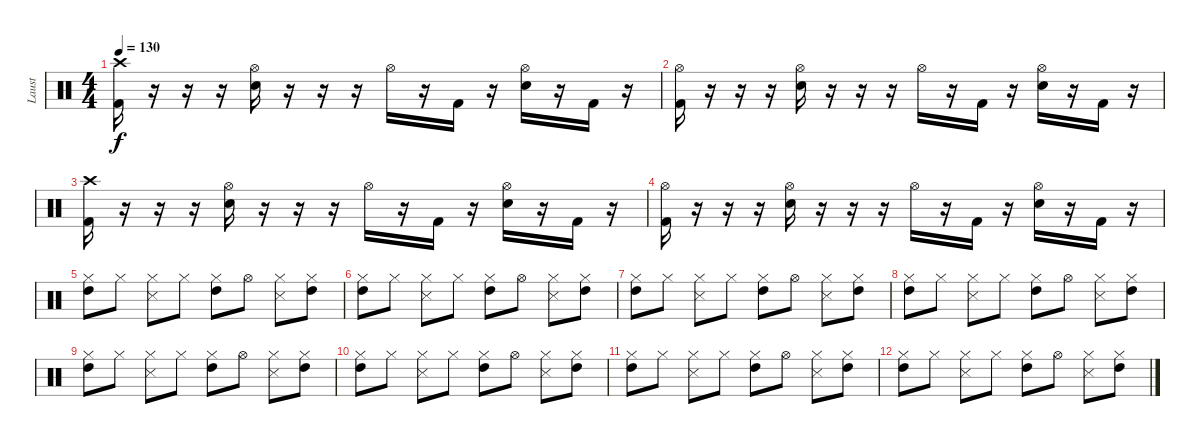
\track ("Laust" "Laust") {instrument percussion}
\staff {score}
\articulation defaults
\ts (4 4)
\tempo 130
\clef neutral
\ks c
("Crash high (hit)" "Kick (hit) 2").16{dy f} r.16 r.16 r.16 ("Hi-Hat (open)" "Snare (hit) 2").16 r.16 r.16 r.16 "Hi-Hat (open)".16 r.16 "Kick (hit) 2".16 r.16 ("Hi-Hat (open)" "Snare (hit) 2").16 r.16 "Kick (hit) 2".16 r.16 |
("Hi-Hat (open)" "Kick (hit) 2").16 r.16 r.16 r.16 ("Hi-Hat (open)" "Snare (hit) 2").16 r.16 r.16 r.16 "Hi-Hat (open)".16 r.16 "Kick (hit) 2".16 r.16 ("Hi-Hat (open)" "Snare (hit) 2").16 r.16 "Kick (hit) 2".16 r.16 |
("Crash high (hit)" "Kick (hit) 2").16 r.16 r.16 r.16 ("Hi-Hat (open)" "Snare (hit) 2").16 r.16 r.16 r.16 "Hi-Hat (open)".16 r.16 "Kick (hit) 2".16 r.16 ("Hi-Hat (open)" "Snare (hit) 2").16 r.16 "Kick (hit) 2".16 r.16 |
("Hi-Hat (open)" "Kick (hit) 2").16 r.16 r.16 r.16 ("Hi-Hat (open)" "Snare (hit) 2").16 r.16 r.16 r.16 "Hi-Hat (open)".16 r.16 "Kick (hit) 2".16 r.16 ("Hi-Hat (open)" "Snare (hit) 2").16 r.16 "Kick (hit) 2".16 r.16 |
("Hi-Hat (closed)" "High Tom (hit)").8 "Hi-Hat (closed)".8 ("Hi-Hat (closed)" "Snare (side stick) 3").8 "Hi-Hat (closed)".8 ("Hi-Hat (closed)" "High Tom (hit)").8 "Hi-Hat (open)".8 ("Hi-Hat (closed)" "Snare (side stick) 3").8 ("Hi-Hat (closed)" "High Tom (hit)").8 |
("Hi-Hat (closed)" "High Tom (hit)").8 "Hi-Hat (closed)".8 ("Hi-Hat (closed)" "Snare (side stick) 3").8 "Hi-Hat (closed)".8 ("Hi-Hat (closed)" "High Tom (hit)").8 "Hi-Hat (open)".8 ("Hi-Hat (closed)" "Snare (side stick) 3").8 ("Hi-Hat (closed)" "High Tom (hit)").8 |
("Hi-Hat (closed)" "High Tom (hit)").8 "Hi-Hat (closed)".8 ("Hi-Hat (closed)" "Snare (side stick) 3").8 "Hi-Hat (closed)".8 ("Hi-Hat (closed)" "High Tom (hit)").8 "Hi-Hat (open)".8 ("Hi-Hat (closed)" "Snare (side stick) 3").8 ("Hi-Hat (closed)" "High Tom (hit)").8 |
("Hi-Hat (closed)" "High Tom (hit)").8 "Hi-Hat (closed)".8 ("Hi-Hat (closed)" "Snare (side stick) 3").8 "Hi-Hat (closed)".8 ("Hi-Hat (closed)" "High Tom (hit)").8 "Hi-Hat (open)".8 ("Hi-Hat (closed)" "Snare (side stick) 3").8 ("Hi-Hat (closed)" "High Tom (hit)").8 |
("Hi-Hat (closed)" "High Tom (hit)").8 "Hi-Hat (closed)".8 ("Hi-Hat (closed)" "Snare (side stick) 3").8 "Hi-Hat (closed)".8 ("Hi-Hat (closed)" "High Tom (hit)").8 "Hi-Hat (open)".8 ("Hi-Hat (closed)" "Snare (side stick) 3").8 ("Hi-Hat (closed)" "High Tom (hit)").8 |
("Hi-Hat (closed)" "High Tom (hit)").8 "Hi-Hat (closed)".8 ("Hi-Hat (closed)" "Snare (side stick) 3").8 "Hi-Hat (closed)".8 ("Hi-Hat (closed)" "High Tom (hit)").8 "Hi-Hat (open)".8 ("Hi-Hat (closed)" "Snare (side stick) 3").8 ("Hi-Hat (closed)" "High Tom (hit)").8 |
("Hi-Hat (closed)" "High Tom (hit)").8 "Hi-Hat (closed)".8 ("Hi-Hat (closed)" "Snare (side stick) 3").8 "Hi-Hat (closed)".8 ("Hi-Hat (closed)" "High Tom (hit)").8 "Hi-Hat (open)".8 ("Hi-Hat (closed)" "Snare (side stick) 3").8 ("Hi-Hat (closed)" "High Tom (hit)").8 |
("Hi-Hat (closed)" "High Tom (hit)").8 "Hi-Hat (closed)".8 ("Hi-Hat (closed)" "Snare (side stick) 3").8 "Hi-Hat (closed)".8 ("Hi-Hat (closed)" "High Tom (hit)").8 "Hi-Hat (open)".8 ("Hi-Hat (closed)" "Snare (side stick) 3").8 ("Hi-Hat (closed)" "High Tom (hit)").8
